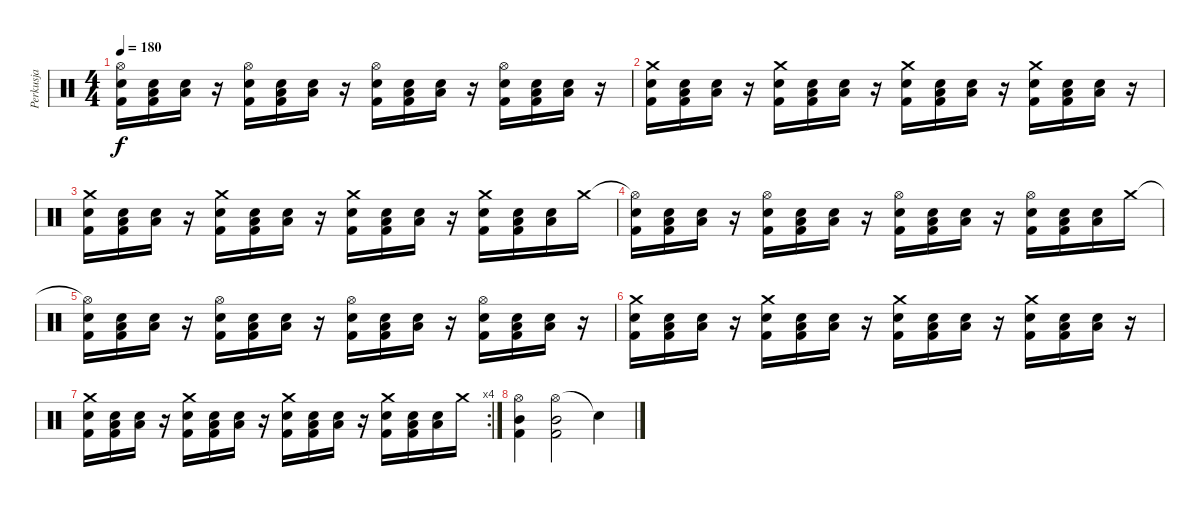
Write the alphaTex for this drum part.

\track ("Perkusja" "Perkusja") {instrument percussion}
\staff {score}
\articulation defaults
\ts (4 4)
\tempo 180
\clef neutral
\ks c
("Hi-Hat (open)"{t} "Snare (hit) 2" "Kick (hit) 2").16{dy f} ("Low Tom (hit)" "Snare (hit) 2" "Kick (hit) 2").16 ("Low Tom (hit)" "Snare (hit) 2").16 r.16 ("Hi-Hat (open)" "Snare (hit) 2" "Kick (hit) 2").16 ("Low Tom (hit)" "Snare (hit) 2" "Kick (hit) 2").16 ("Low Tom (hit)" "Snare (hit) 2").16 r.16 ("Hi-Hat (open)" "Snare (hit) 2" "Kick (hit) 2").16 ("Low Tom (hit)" "Snare (hit) 2" "Kick (hit) 2").16 ("Low Tom (hit)" "Snare (hit) 2").16 r.16 ("Hi-Hat (open)" "Snare (hit) 2" "Kick (hit) 2").16 ("Low Tom (hit)" "Snare (hit) 2" "Kick (hit) 2").16 ("Low Tom (hit)" "Snare (hit) 2").16 r.16 |
("Crash medium (hit)" "Snare (hit) 2" "Kick (hit) 2").16 ("Low Tom (hit)" "Snare (hit) 2" "Kick (hit) 2").16 ("Low Tom (hit)" "Snare (hit) 2").16 r.16 ("Crash medium (hit)" "Snare (hit) 2" "Kick (hit) 2").16 ("Low Tom (hit)" "Snare (hit) 2" "Kick (hit) 2").16 ("Low Tom (hit)" "Snare (hit) 2").16 r.16 ("Crash medium (hit)" "Snare (hit) 2" "Kick (hit) 2").16 ("Low Tom (hit)" "Snare (hit) 2" "Kick (hit) 2").16 ("Low Tom (hit)" "Snare (hit) 2").16 r.16 ("Crash medium (hit)" "Snare (hit) 2" "Kick (hit) 2").16 ("Low Tom (hit)" "Snare (hit) 2" "Kick (hit) 2").16 ("Low Tom (hit)" "Snare (hit) 2").16 r.16 |
("Crash medium (hit)" "Snare (hit) 2" "Kick (hit) 2").16 ("Low Tom (hit)" "Snare (hit) 2" "Kick (hit) 2").16 ("Low Tom (hit)" "Snare (hit) 2").16 r.16 ("Crash medium (hit)" "Snare (hit) 2" "Kick (hit) 2").16 ("Low Tom (hit)" "Snare (hit) 2" "Kick (hit) 2").16 ("Low Tom (hit)" "Snare (hit) 2").16 r.16 ("Crash medium (hit)" "Snare (hit) 2" "Kick (hit) 2").16 ("Low Tom (hit)" "Snare (hit) 2" "Kick (hit) 2").16 ("Low Tom (hit)" "Snare (hit) 2").16 r.16 ("Crash medium (hit)" "Snare (hit) 2" "Kick (hit) 2").16 ("Low Tom (hit)" "Snare (hit) 2" "Kick (hit) 2").16 ("Low Tom (hit)" "Snare (hit) 2").16 "Crash medium (hit)".16 |
("Hi-Hat (open)"{t} "Snare (hit) 2" "Kick (hit) 2").16 ("Low Tom (hit)" "Snare (hit) 2" "Kick (hit) 2").16 ("Low Tom (hit)" "Snare (hit) 2").16 r.16 ("Hi-Hat (open)" "Snare (hit) 2" "Kick (hit) 2").16 ("Low Tom (hit)" "Snare (hit) 2" "Kick (hit) 2").16 ("Low Tom (hit)" "Snare (hit) 2").16 r.16 ("Hi-Hat (open)" "Snare (hit) 2" "Kick (hit) 2").16 ("Low Tom (hit)" "Snare (hit) 2" "Kick (hit) 2").16 ("Low Tom (hit)" "Snare (hit) 2").16 r.16 ("Hi-Hat (open)" "Snare (hit) 2" "Kick (hit) 2").16 ("Low Tom (hit)" "Snare (hit) 2" "Kick (hit) 2").16 ("Low Tom (hit)" "Snare (hit) 2").16 "Crash medium (hit)".16 |
("Hi-Hat (open)"{t} "Snare (hit) 2" "Kick (hit) 2").16 ("Low Tom (hit)" "Snare (hit) 2" "Kick (hit) 2").16 ("Low Tom (hit)" "Snare (hit) 2").16 r.16 ("Hi-Hat (open)" "Snare (hit) 2" "Kick (hit) 2").16 ("Low Tom (hit)" "Snare (hit) 2" "Kick (hit) 2").16 ("Low Tom (hit)" "Snare (hit) 2").16 r.16 ("Hi-Hat (open)" "Snare (hit) 2" "Kick (hit) 2").16 ("Low Tom (hit)" "Snare (hit) 2" "Kick (hit) 2").16 ("Low Tom (hit)" "Snare (hit) 2").16 r.16 ("Hi-Hat (open)" "Snare (hit) 2" "Kick (hit) 2").16 ("Low Tom (hit)" "Snare (hit) 2" "Kick (hit) 2").16 ("Low Tom (hit)" "Snare (hit) 2").16 r.16 |
("Crash medium (hit)" "Snare (hit) 2" "Kick (hit) 2").16 ("Low Tom (hit)" "Snare (hit) 2" "Kick (hit) 2").16 ("Low Tom (hit)" "Snare (hit) 2").16 r.16 ("Crash medium (hit)" "Snare (hit) 2" "Kick (hit) 2").16 ("Low Tom (hit)" "Snare (hit) 2" "Kick (hit) 2").16 ("Low Tom (hit)" "Snare (hit) 2").16 r.16 ("Crash medium (hit)" "Snare (hit) 2" "Kick (hit) 2").16 ("Low Tom (hit)" "Snare (hit) 2" "Kick (hit) 2").16 ("Low Tom (hit)" "Snare (hit) 2").16 r.16 ("Crash medium (hit)" "Snare (hit) 2" "Kick (hit) 2").16 ("Low Tom (hit)" "Snare (hit) 2" "Kick (hit) 2").16 ("Low Tom (hit)" "Snare (hit) 2").16 r.16 |
\rc 4
("Crash medium (hit)" "Snare (hit) 2" "Kick (hit) 2").16 ("Low Tom (hit)" "Snare (hit) 2" "Kick (hit) 2").16 ("Low Tom (hit)" "Snare (hit) 2").16 r.16 ("Crash medium (hit)" "Snare (hit) 2" "Kick (hit) 2").16 ("Low Tom (hit)" "Snare (hit) 2" "Kick (hit) 2").16 ("Low Tom (hit)" "Snare (hit) 2").16 r.16 ("Crash medium (hit)" "Snare (hit) 2" "Kick (hit) 2").16 ("Low Tom (hit)" "Snare (hit) 2" "Kick (hit) 2").16 ("Low Tom (hit)" "Snare (hit) 2").16 r.16 ("Crash medium (hit)" "Snare (hit) 2" "Kick (hit) 2").16 ("Low Tom (hit)" "Snare (hit) 2" "Kick (hit) 2").16 ("Low Tom (hit)" "Snare (hit) 2").16 "Crash medium (hit)".16 |
("Hi-Hat (open)" "Mid Tom (hit)" "Kick (hit) 2").4 ("Hi-Hat (open)" "Mid Tom (hit)" "Kick (hit) 2").2 "Snare (hit)"{t}.4
